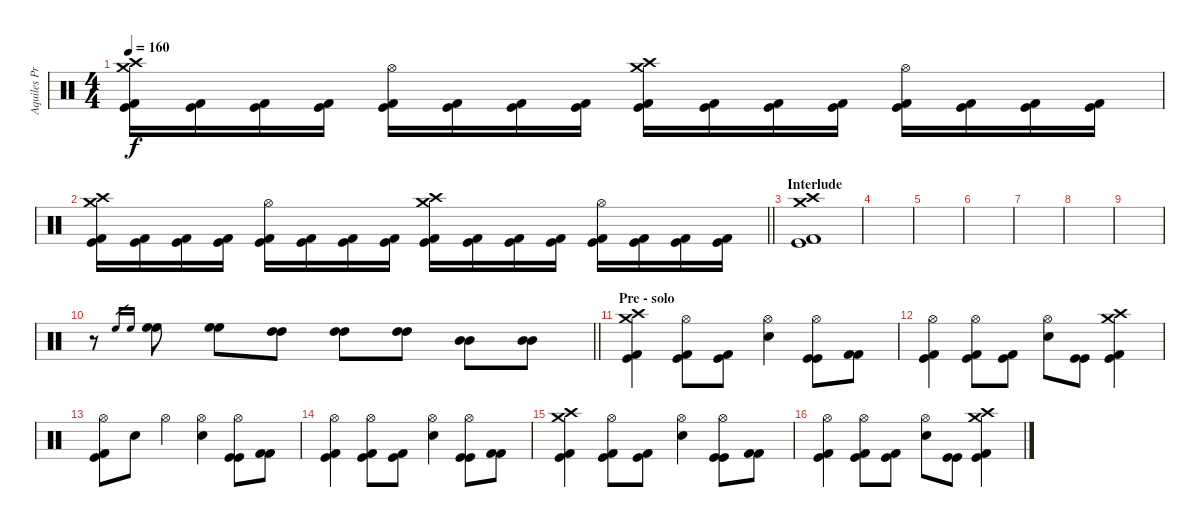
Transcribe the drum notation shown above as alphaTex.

\track ("Aquiles Priester" "Aquiles Pr") {instrument percussion}
\staff {score}
\articulation defaults
\ts (4 4)
\tempo 160
\clef neutral
\ks c
("Crash medium (hit)" "Crash high (hit)" "Kick (hit)" "Kick (hit) 2").16{dy f} ("Kick (hit)" "Kick (hit) 2").16 ("Kick (hit)" "Kick (hit) 2").16 ("Kick (hit)" "Kick (hit) 2").16 ("Hi-Hat (open)" "Kick (hit)" "Kick (hit) 2").16 ("Kick (hit)" "Kick (hit) 2").16 ("Kick (hit)" "Kick (hit) 2").16 ("Kick (hit)" "Kick (hit) 2").16 ("Crash medium (hit)" "Crash high (hit)" "Kick (hit)" "Kick (hit) 2").16 ("Kick (hit)" "Kick (hit) 2").16 ("Kick (hit)" "Kick (hit) 2").16 ("Kick (hit)" "Kick (hit) 2").16 ("Hi-Hat (open)" "Kick (hit)" "Kick (hit) 2").16 ("Kick (hit)" "Kick (hit) 2").16 ("Kick (hit)" "Kick (hit) 2").16 ("Kick (hit)" "Kick (hit) 2").16 |
\barLineRight lightlight
("Crash medium (hit)" "Crash high (hit)" "Kick (hit)" "Kick (hit) 2").16 ("Kick (hit)" "Kick (hit) 2").16 ("Kick (hit)" "Kick (hit) 2").16 ("Kick (hit)" "Kick (hit) 2").16 ("Hi-Hat (open)" "Kick (hit)" "Kick (hit) 2").16 ("Kick (hit)" "Kick (hit) 2").16 ("Kick (hit)" "Kick (hit) 2").16 ("Kick (hit)" "Kick (hit) 2").16 ("Crash medium (hit)" "Crash high (hit)" "Kick (hit)" "Kick (hit) 2").16 ("Kick (hit)" "Kick (hit) 2").16 ("Kick (hit)" "Kick (hit) 2").16 ("Kick (hit)" "Kick (hit) 2").16 ("Hi-Hat (open)" "Kick (hit)" "Kick (hit) 2").16 ("Kick (hit)" "Kick (hit) 2").16 ("Kick (hit)" "Kick (hit) 2").16 ("Kick (hit)" "Kick (hit) 2").16 |
\section ("" "Interlude")
("Crash medium (hit)" "Crash high (hit)" "Kick (hit) 2" "Kick (hit)").1{bd 120} |
|
|
|
|
|
|
\barLineRight lightlight
r.8 "High Floor Tom (hit)".16{gr} "High Floor Tom (hit)".16{gr} ("High Floor Tom (hit)" "High Floor Tom (hit)").8 ("High Floor Tom (hit)" "High Floor Tom (hit)").8 ("High Tom (hit)" "High Tom (hit)").8 ("High Tom (hit)" "High Tom (hit)").8 ("High Tom (hit)" "High Tom (hit)").8 ("Mid Tom (hit)" "Mid Tom (hit)").8 ("Mid Tom (hit)" "Mid Tom (hit)").8 |
\section ("" "Pre - solo")
("Crash medium (hit)" "Crash high (hit)" "Kick (hit) 2" "Kick (hit)").4 ("Hi-Hat (open)" "Kick (hit) 2" "Kick (hit)").8 ("Kick (hit) 2" "Kick (hit)").8 ("Hi-Hat (open)" "Electric Snare (hit)").4 ("Hi-Hat (open)" "Kick (hit)" "Kick (hit)").8 ("Kick (hit) 2" "Kick (hit) 2").8 |
("Hi-Hat (open)" "Kick (hit) 2" "Kick (hit)").4 ("Hi-Hat (open)" "Kick (hit) 2" "Kick (hit)").8 ("Kick (hit) 2" "Kick (hit)").8 ("Hi-Hat (open)" "Electric Snare (hit)").8 ("Kick (hit)" "Kick (hit)").8 ("Crash medium (hit)" "Crash high (hit)" "Kick (hit) 2" "Kick (hit)").4 |
("Hi-Hat (open)" "Kick (hit) 2" "Kick (hit)").8 "Electric Snare (hit)".8 "Hi-Hat (open)".4 ("Hi-Hat (open)" "Electric Snare (hit)").4 ("Hi-Hat (open)" "Kick (hit)" "Kick (hit)").8 ("Kick (hit) 2" "Kick (hit) 2").8 |
("Hi-Hat (open)" "Kick (hit) 2" "Kick (hit)").4 ("Hi-Hat (open)" "Kick (hit) 2" "Kick (hit)").8 ("Kick (hit) 2" "Kick (hit)").8 ("Hi-Hat (open)" "Electric Snare (hit)").4 ("Hi-Hat (open)" "Kick (hit)" "Kick (hit)").8 ("Kick (hit) 2" "Kick (hit) 2").8 |
("Crash medium (hit)" "Crash high (hit)" "Kick (hit) 2" "Kick (hit)").4 ("Hi-Hat (open)" "Kick (hit) 2" "Kick (hit)").8 ("Kick (hit) 2" "Kick (hit)").8 ("Hi-Hat (open)" "Electric Snare (hit)").4 ("Hi-Hat (open)" "Kick (hit)" "Kick (hit)").8 ("Kick (hit) 2" "Kick (hit) 2").8 |
("Hi-Hat (open)" "Kick (hit) 2" "Kick (hit)").4 ("Hi-Hat (open)" "Kick (hit) 2" "Kick (hit)").8 ("Kick (hit) 2" "Kick (hit)").8 ("Hi-Hat (open)" "Electric Snare (hit)").8 ("Kick (hit)" "Kick (hit)").8 ("Crash medium (hit)" "Crash high (hit)" "Kick (hit) 2" "Kick (hit)").4
